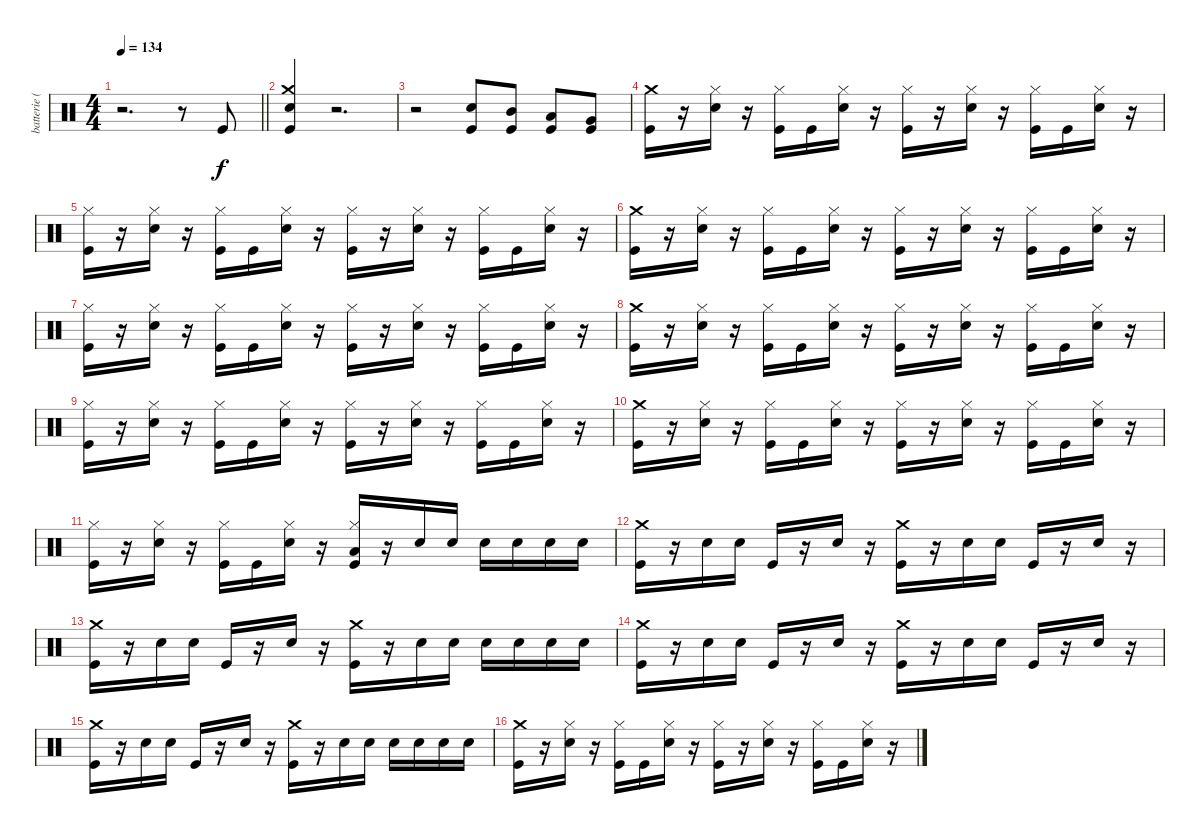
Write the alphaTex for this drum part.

\track ("batterie ( Mathieu )" "batterie (") {instrument percussion}
\staff {score}
\articulation defaults
\ts (4 4)
\tempo 134
\clef neutral
\barLineRight lightlight
\ks c
r.2{d dy f} r.8 "Kick (hit)".8 |
("Crash medium (hit)" "Snare (hit) 2" "Kick (hit)").4 r.2{d} |
r.2 ("Snare (hit) 2" "Kick (hit)").8 ("Mid Tom (hit)" "Kick (hit)").8 ("Low Tom (hit)" "Kick (hit)").8 ("Very Low Tom (hit)" "Kick (hit)").8 |
("Crash medium (hit)" "Kick (hit)").16 r.16 ("Hi-Hat (closed)" "Snare (hit) 2").16 r.16 ("Hi-Hat (closed)" "Kick (hit)").16 "Kick (hit)".16 ("Hi-Hat (closed)" "Snare (hit) 2").16 r.16 ("Hi-Hat (closed)" "Kick (hit)").16 r.16 ("Hi-Hat (closed)" "Snare (hit) 2").16 r.16 ("Hi-Hat (closed)" "Kick (hit)").16 "Kick (hit)".16 ("Hi-Hat (closed)" "Snare (hit) 2").16 r.16 |
("Hi-Hat (closed)" "Kick (hit)").16 r.16 ("Hi-Hat (closed)" "Snare (hit) 2").16 r.16 ("Hi-Hat (closed)" "Kick (hit)").16 "Kick (hit)".16 ("Hi-Hat (closed)" "Snare (hit) 2").16 r.16 ("Hi-Hat (closed)" "Kick (hit)").16 r.16 ("Hi-Hat (closed)" "Snare (hit) 2").16 r.16 ("Hi-Hat (closed)" "Kick (hit)").16 "Kick (hit)".16 ("Hi-Hat (closed)" "Snare (hit) 2").16 r.16 |
("Crash medium (hit)" "Kick (hit)").16 r.16 ("Hi-Hat (closed)" "Snare (hit) 2").16 r.16 ("Hi-Hat (closed)" "Kick (hit)").16 "Kick (hit)".16 ("Hi-Hat (closed)" "Snare (hit) 2").16 r.16 ("Hi-Hat (closed)" "Kick (hit)").16 r.16 ("Hi-Hat (closed)" "Snare (hit) 2").16 r.16 ("Hi-Hat (closed)" "Kick (hit)").16 "Kick (hit)".16 ("Hi-Hat (closed)" "Snare (hit) 2").16 r.16 |
("Hi-Hat (closed)" "Kick (hit)").16 r.16 ("Hi-Hat (closed)" "Snare (hit) 2").16 r.16 ("Hi-Hat (closed)" "Kick (hit)").16 "Kick (hit)".16 ("Hi-Hat (closed)" "Snare (hit) 2").16 r.16 ("Hi-Hat (closed)" "Kick (hit)").16 r.16 ("Hi-Hat (closed)" "Snare (hit) 2").16 r.16 ("Hi-Hat (closed)" "Kick (hit)").16 "Kick (hit)".16 ("Hi-Hat (closed)" "Snare (hit) 2").16 r.16 |
("Crash medium (hit)" "Kick (hit)").16 r.16 ("Hi-Hat (closed)" "Snare (hit) 2").16 r.16 ("Hi-Hat (closed)" "Kick (hit)").16 "Kick (hit)".16 ("Hi-Hat (closed)" "Snare (hit) 2").16 r.16 ("Hi-Hat (closed)" "Kick (hit)").16 r.16 ("Hi-Hat (closed)" "Snare (hit) 2").16 r.16 ("Hi-Hat (closed)" "Kick (hit)").16 "Kick (hit)".16 ("Hi-Hat (closed)" "Snare (hit) 2").16 r.16 |
("Hi-Hat (closed)" "Kick (hit)").16 r.16 ("Hi-Hat (closed)" "Snare (hit) 2").16 r.16 ("Hi-Hat (closed)" "Kick (hit)").16 "Kick (hit)".16 ("Hi-Hat (closed)" "Snare (hit) 2").16 r.16 ("Hi-Hat (closed)" "Kick (hit)").16 r.16 ("Hi-Hat (closed)" "Snare (hit) 2").16 r.16 ("Hi-Hat (closed)" "Kick (hit)").16 "Kick (hit)".16 ("Hi-Hat (closed)" "Snare (hit) 2").16 r.16 |
("Crash medium (hit)" "Kick (hit)").16 r.16 ("Hi-Hat (closed)" "Snare (hit) 2").16 r.16 ("Hi-Hat (closed)" "Kick (hit)").16 "Kick (hit)".16 ("Hi-Hat (closed)" "Snare (hit) 2").16 r.16 ("Hi-Hat (closed)" "Kick (hit)").16 r.16 ("Hi-Hat (closed)" "Snare (hit) 2").16 r.16 ("Hi-Hat (closed)" "Kick (hit)").16 "Kick (hit)".16 ("Hi-Hat (closed)" "Snare (hit) 2").16 r.16 |
("Hi-Hat (closed)" "Kick (hit)").16 r.16 ("Hi-Hat (closed)" "Snare (hit) 2").16 r.16 ("Hi-Hat (closed)" "Kick (hit)").16 "Kick (hit)".16 ("Hi-Hat (closed)" "Snare (hit) 2").16 r.16 ("Hi-Hat (closed)" "Low Floor Tom (hit)" "Kick (hit)").16 r.16 "Snare (hit) 2".16 "Snare (hit) 2".16 "Snare (hit) 2".16 "Snare (hit) 2".16 "Snare (hit) 2".16 "Snare (hit) 2".16 |
("Crash medium (hit)" "Kick (hit)").16 r.16 "Snare (hit) 2".16 "Snare (hit) 2".16 "Kick (hit)".16 r.16 "Snare (hit) 2".16 r.16 ("Crash medium (hit)" "Kick (hit)").16 r.16 "Snare (hit) 2".16 "Snare (hit) 2".16 "Kick (hit)".16 r.16 "Snare (hit) 2".16 r.16 |
("Crash medium (hit)" "Kick (hit)").16 r.16 "Snare (hit) 2".16 "Snare (hit) 2".16 "Kick (hit)".16 r.16 "Snare (hit) 2".16 r.16 ("Crash medium (hit)" "Kick (hit)").16 r.16 "Snare (hit) 2".16 "Snare (hit) 2".16 "Snare (hit) 2".16 "Snare (hit) 2".16 "Snare (hit) 2".16 "Snare (hit) 2".16 |
("Crash medium (hit)" "Kick (hit)").16 r.16 "Snare (hit) 2".16 "Snare (hit) 2".16 "Kick (hit)".16 r.16 "Snare (hit) 2".16 r.16 ("Crash medium (hit)" "Kick (hit)").16 r.16 "Snare (hit) 2".16 "Snare (hit) 2".16 "Kick (hit)".16 r.16 "Snare (hit) 2".16 r.16 |
("Crash medium (hit)" "Kick (hit)").16 r.16 "Snare (hit) 2".16 "Snare (hit) 2".16 "Kick (hit)".16 r.16 "Snare (hit) 2".16 r.16 ("Crash medium (hit)" "Kick (hit)").16 r.16 "Snare (hit) 2".16 "Snare (hit) 2".16 "Snare (hit) 2".16 "Snare (hit) 2".16 "Snare (hit) 2".16 "Snare (hit) 2".16 |
("Crash medium (hit)" "Kick (hit)").16 r.16 ("Hi-Hat (closed)" "Snare (hit) 2").16 r.16 ("Hi-Hat (closed)" "Kick (hit)").16 "Kick (hit)".16 ("Hi-Hat (closed)" "Snare (hit) 2").16 r.16 ("Hi-Hat (closed)" "Kick (hit)").16 r.16 ("Hi-Hat (closed)" "Snare (hit) 2").16 r.16 ("Hi-Hat (closed)" "Kick (hit)").16 "Kick (hit)".16 ("Hi-Hat (closed)" "Snare (hit) 2").16 r.16
